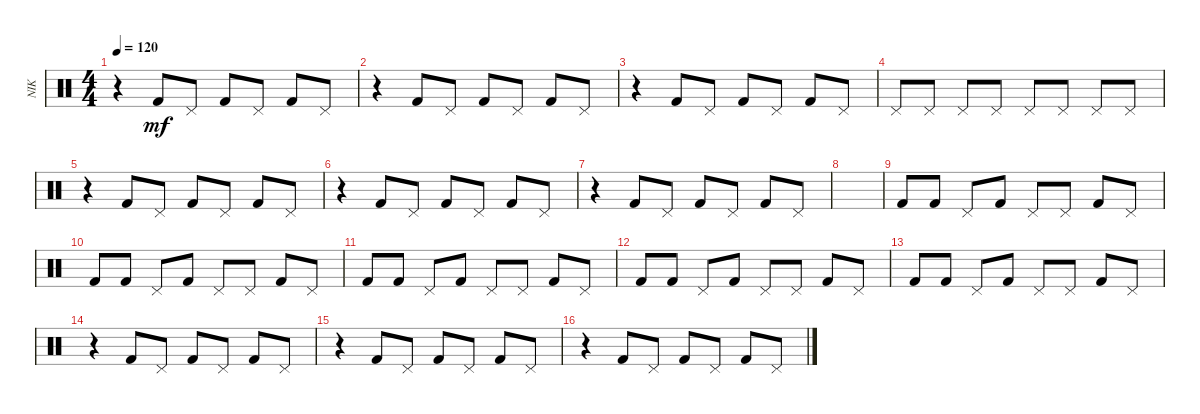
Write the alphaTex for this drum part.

\track ("NIK" "NIK") {instrument percussion}
\staff {score}
\articulation defaults
\ts (4 4)
\tempo 120
\clef neutral
\ks c
r.4{dy mf} "Kick (hit) 2".8 "Pedal Hi-Hat (hit)".8 "Kick (hit) 2".8 "Pedal Hi-Hat (hit)".8 "Kick (hit) 2".8 "Pedal Hi-Hat (hit)".8 |
r.4 "Kick (hit) 2".8 "Pedal Hi-Hat (hit)".8 "Kick (hit) 2".8 "Pedal Hi-Hat (hit)".8 "Kick (hit) 2".8 "Pedal Hi-Hat (hit)".8 |
r.4 "Kick (hit) 2".8 "Pedal Hi-Hat (hit)".8 "Kick (hit) 2".8 "Pedal Hi-Hat (hit)".8 "Kick (hit) 2".8 "Pedal Hi-Hat (hit)".8 |
"Pedal Hi-Hat (hit)".8 "Pedal Hi-Hat (hit)".8 "Pedal Hi-Hat (hit)".8 "Pedal Hi-Hat (hit)".8 "Pedal Hi-Hat (hit)".8 "Pedal Hi-Hat (hit)".8 "Pedal Hi-Hat (hit)".8 "Pedal Hi-Hat (hit)".8 |
r.4 "Kick (hit) 2".8 "Pedal Hi-Hat (hit)".8 "Kick (hit) 2".8 "Pedal Hi-Hat (hit)".8 "Kick (hit) 2".8 "Pedal Hi-Hat (hit)".8 |
r.4 "Kick (hit) 2".8 "Pedal Hi-Hat (hit)".8 "Kick (hit) 2".8 "Pedal Hi-Hat (hit)".8 "Kick (hit) 2".8 "Pedal Hi-Hat (hit)".8 |
r.4 "Kick (hit) 2".8 "Pedal Hi-Hat (hit)".8 "Kick (hit) 2".8 "Pedal Hi-Hat (hit)".8 "Kick (hit) 2".8 "Pedal Hi-Hat (hit)".8 |
|
"Kick (hit) 2".8 "Kick (hit) 2".8 "Pedal Hi-Hat (hit)".8 "Kick (hit) 2".8 "Pedal Hi-Hat (hit)".8 "Pedal Hi-Hat (hit)".8 "Kick (hit) 2".8 "Pedal Hi-Hat (hit)".8 |
"Kick (hit) 2".8 "Kick (hit) 2".8 "Pedal Hi-Hat (hit)".8 "Kick (hit) 2".8 "Pedal Hi-Hat (hit)".8 "Pedal Hi-Hat (hit)".8 "Kick (hit) 2".8 "Pedal Hi-Hat (hit)".8 |
"Kick (hit) 2".8 "Kick (hit) 2".8 "Pedal Hi-Hat (hit)".8 "Kick (hit) 2".8 "Pedal Hi-Hat (hit)".8 "Pedal Hi-Hat (hit)".8 "Kick (hit) 2".8 "Pedal Hi-Hat (hit)".8 |
"Kick (hit) 2".8 "Kick (hit) 2".8 "Pedal Hi-Hat (hit)".8 "Kick (hit) 2".8 "Pedal Hi-Hat (hit)".8 "Pedal Hi-Hat (hit)".8 "Kick (hit) 2".8 "Pedal Hi-Hat (hit)".8 |
"Kick (hit) 2".8 "Kick (hit) 2".8 "Pedal Hi-Hat (hit)".8 "Kick (hit) 2".8 "Pedal Hi-Hat (hit)".8 "Pedal Hi-Hat (hit)".8 "Kick (hit) 2".8 "Pedal Hi-Hat (hit)".8 |
r.4 "Kick (hit) 2".8 "Pedal Hi-Hat (hit)".8 "Kick (hit) 2".8 "Pedal Hi-Hat (hit)".8 "Kick (hit) 2".8 "Pedal Hi-Hat (hit)".8 |
r.4 "Kick (hit) 2".8 "Pedal Hi-Hat (hit)".8 "Kick (hit) 2".8 "Pedal Hi-Hat (hit)".8 "Kick (hit) 2".8 "Pedal Hi-Hat (hit)".8 |
r.4 "Kick (hit) 2".8 "Pedal Hi-Hat (hit)".8 "Kick (hit) 2".8 "Pedal Hi-Hat (hit)".8 "Kick (hit) 2".8 "Pedal Hi-Hat (hit)".8
